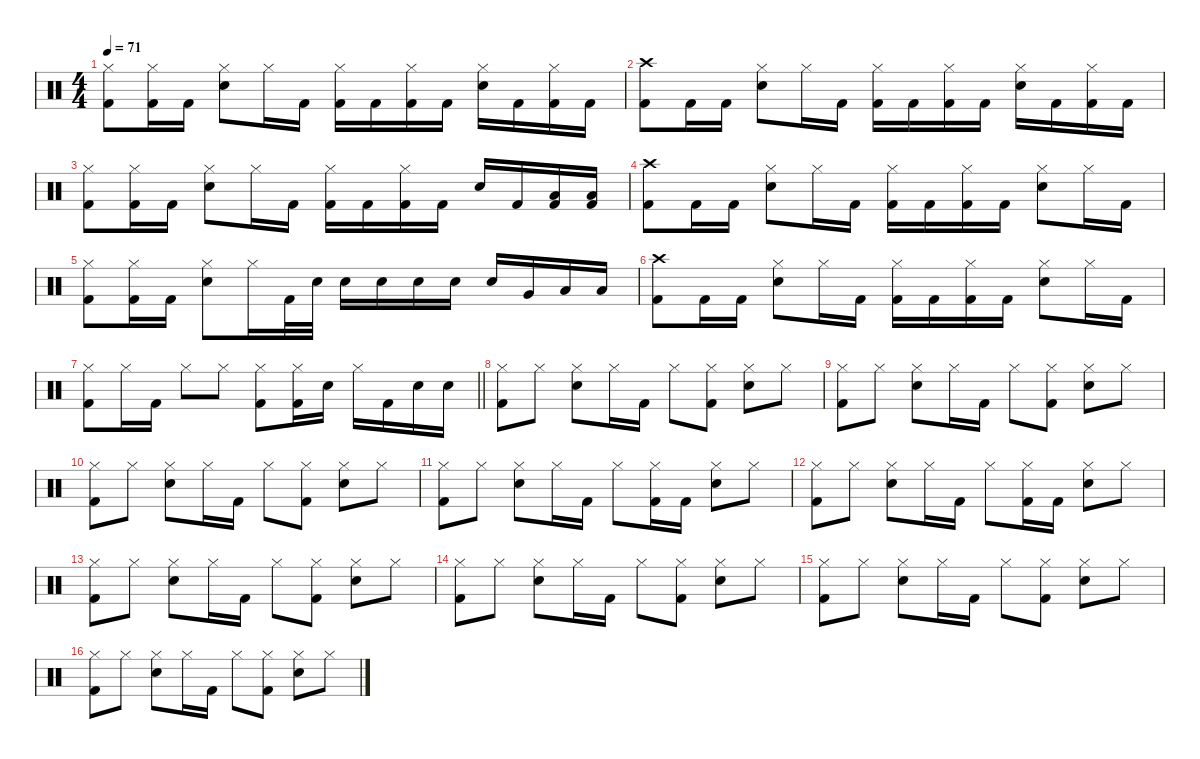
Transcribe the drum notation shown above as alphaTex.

\defaultSystemsLayout 4
\hideDynamics
\bracketExtendMode nobrackets
\singleTrackTrackNamePolicy hidden
\multiTrackTrackNamePolicy hidden
\firstSystemTrackNameMode fullname
\firstSystemTrackNameOrientation horizontal
\otherSystemsTrackNameOrientation horizontal
\track ("Drums" "drm.") {instrument percussion}
\staff {score}
\articulation defaults
\ts (4 4)
\tempo 71
\clef neutral
\ks c
("Hi-Hat (closed)" "Kick (hit) 2").8{dy f beam Down} ("Hi-Hat (closed)" "Kick (hit) 2").16{beam Down} "Kick (hit) 2".16{beam Down} ("Hi-Hat (closed)" "Snare (hit) 2").8{beam Down} "Hi-Hat (closed)".16{beam Down} "Kick (hit) 2".16{beam Down} ("Hi-Hat (closed)" "Kick (hit) 2").16{beam Down} "Kick (hit) 2".16{beam Down} ("Hi-Hat (closed)" "Kick (hit) 2").16{beam Down} "Kick (hit) 2".16{beam Down} ("Hi-Hat (closed)" "Snare (hit) 2").16{beam Down} "Kick (hit) 2".16{beam Down} ("Hi-Hat (closed)" "Kick (hit) 2").16{beam Down} "Kick (hit) 2".16{beam Down} |
("Crash high (hit)" "Kick (hit) 2").8{beam Down} "Kick (hit) 2".16{beam Down} "Kick (hit) 2".16{beam Down} ("Hi-Hat (closed)" "Snare (hit) 2").8{beam Down} "Hi-Hat (closed)".16{beam Down} "Kick (hit) 2".16{beam Down} ("Hi-Hat (closed)" "Kick (hit) 2").16{beam Down} "Kick (hit) 2".16{beam Down} ("Hi-Hat (closed)" "Kick (hit) 2").16{beam Down} "Kick (hit) 2".16{beam Down} ("Hi-Hat (closed)" "Snare (hit) 2").16{beam Down} "Kick (hit) 2".16{beam Down} ("Hi-Hat (closed)" "Kick (hit) 2").16{beam Down} "Kick (hit) 2".16{beam Down} |
("Kick (hit) 2" "Hi-Hat (closed)").8{beam Down} ("Hi-Hat (closed)" "Kick (hit) 2").16{beam Down} "Kick (hit) 2".16{beam Down} ("Hi-Hat (closed)" "Snare (hit) 2").8{beam Down} "Hi-Hat (closed)".16{beam Down} "Kick (hit) 2".16{beam Down} ("Hi-Hat (closed)" "Kick (hit) 2").16{beam Down} "Kick (hit) 2".16{beam Down} ("Hi-Hat (closed)" "Kick (hit) 2").16{beam Down} "Kick (hit) 2".16{beam Down} "Snare (hit) 2".16{beam Up} "Kick (hit) 2".16{beam Up} ("Low Tom (hit)" "Kick (hit) 2").16{beam Up} ("Low Tom (hit)" "Kick (hit) 2").16{beam Up} |
("Crash high (hit)" "Kick (hit) 2").8{beam Down} "Kick (hit) 2".16{beam Down} "Kick (hit) 2".16{beam Down} ("Snare (hit) 2" "Hi-Hat (closed)").8{beam Down} "Hi-Hat (closed)".16{beam Down} "Kick (hit) 2".16{beam Down} ("Hi-Hat (closed)" "Kick (hit) 2").16{beam Down} "Kick (hit) 2".16{beam Down} ("Hi-Hat (closed)" "Kick (hit) 2").16{beam Down} "Kick (hit) 2".16{beam Down} ("Snare (hit) 2" "Hi-Hat (closed)").8{beam Down} "Hi-Hat (closed)".16{beam Down} "Kick (hit) 2".16{beam Down} |
("Hi-Hat (closed)" "Kick (hit) 2").8{beam Down} ("Hi-Hat (closed)" "Kick (hit) 2").16{beam Down} "Kick (hit) 2".16{beam Down} ("Hi-Hat (closed)" "Snare (hit) 2").8{beam Down} "Hi-Hat (closed)".16{beam Down} "Kick (hit) 2".32{beam Down} "Snare (hit) 2".32{beam Down} "Snare (hit) 2".16{beam Down} "Snare (hit) 2".16{beam Down} "Snare (hit) 2".16{beam Down} "Snare (hit) 2".16{beam Down} "Snare (hit) 2".16{beam Up} "Very Low Tom (hit)".16{beam Up} "Low Floor Tom (hit)".16{beam Up} "Low Floor Tom (hit)".16{beam Up} |
("Crash high (hit)" "Kick (hit) 2").8{beam Down} "Kick (hit) 2".16{beam Down} "Kick (hit) 2".16{beam Down} ("Snare (hit) 2" "Hi-Hat (closed)").8{beam Down} "Hi-Hat (closed)".16{beam Down} "Kick (hit) 2".16{beam Down} ("Hi-Hat (closed)" "Kick (hit) 2").16{beam Down} "Kick (hit) 2".16{beam Down} ("Hi-Hat (closed)" "Kick (hit) 2").16{beam Down} "Kick (hit) 2".16{beam Down} ("Snare (hit) 2" "Hi-Hat (closed)").8{beam Down} "Hi-Hat (closed)".16{beam Down} "Kick (hit) 2".16{beam Down} |
\barLineRight lightlight
("Hi-Hat (closed)" "Kick (hit) 2").8{beam Down} "Hi-Hat (closed)".16{beam Down} "Kick (hit) 2".16{beam Down} "Hi-Hat (closed)".8{beam Down} "Hi-Hat (closed)".8{beam Down} ("Hi-Hat (closed)" "Kick (hit) 2").8{beam Down} ("Hi-Hat (closed)" "Kick (hit) 2").16{beam Down} "Snare (hit) 2".16{beam Down} "Hi-Hat (closed)".16{beam Down} "Kick (hit) 2".16{beam Down} "Snare (hit) 2".16{beam Down} "Snare (hit) 2".16{beam Down} |
("Hi-Hat (closed)" "Kick (hit) 2").8{beam Down} "Hi-Hat (closed)".8{beam Down} ("Hi-Hat (closed)" "Snare (hit) 2").8{beam Down} "Hi-Hat (closed)".16{beam Down} "Kick (hit) 2".16{beam Down} "Hi-Hat (closed)".8{beam Down} ("Kick (hit) 2" "Hi-Hat (closed)").8{beam Down} ("Hi-Hat (closed)" "Snare (hit) 2").8{beam Down} "Hi-Hat (closed)".8{beam Down} |
("Hi-Hat (closed)" "Kick (hit) 2").8{beam Down} "Hi-Hat (closed)".8{beam Down} ("Hi-Hat (closed)" "Snare (hit) 2").8{beam Down} "Hi-Hat (closed)".16{beam Down} "Kick (hit) 2".16{beam Down} "Hi-Hat (closed)".8{beam Down} ("Kick (hit) 2" "Hi-Hat (closed)").8{beam Down} ("Hi-Hat (closed)" "Snare (hit) 2").8{beam Down} "Hi-Hat (closed)".8{beam Down} |
("Hi-Hat (closed)" "Kick (hit) 2").8{beam Down} "Hi-Hat (closed)".8{beam Down} ("Hi-Hat (closed)" "Snare (hit) 2").8{beam Down} "Hi-Hat (closed)".16{beam Down} "Kick (hit) 2".16{beam Down} "Hi-Hat (closed)".8{beam Down} ("Kick (hit) 2" "Hi-Hat (closed)").8{beam Down} ("Hi-Hat (closed)" "Snare (hit) 2").8{beam Down} "Hi-Hat (closed)".8{beam Down} |
("Hi-Hat (closed)" "Kick (hit) 2").8{beam Down} "Hi-Hat (closed)".8{beam Down} ("Hi-Hat (closed)" "Snare (hit) 2").8{beam Down} "Hi-Hat (closed)".16{beam Down} "Kick (hit) 2".16{beam Down} "Hi-Hat (closed)".8{beam Down} ("Kick (hit) 2" "Hi-Hat (closed)").16{beam Down} "Kick (hit) 2".16{beam Down} ("Hi-Hat (closed)" "Snare (hit) 2").8{beam Down} "Hi-Hat (closed)".8{beam Down} |
("Hi-Hat (closed)" "Kick (hit) 2").8{beam Down} "Hi-Hat (closed)".8{beam Down} ("Hi-Hat (closed)" "Snare (hit) 2").8{beam Down} "Hi-Hat (closed)".16{beam Down} "Kick (hit) 2".16{beam Down} "Hi-Hat (closed)".8{beam Down} ("Kick (hit) 2" "Hi-Hat (closed)").16{beam Down} "Kick (hit) 2".16{beam Down} ("Hi-Hat (closed)" "Snare (hit) 2").8{beam Down} "Hi-Hat (closed)".8{beam Down} |
("Hi-Hat (closed)" "Kick (hit) 2").8{beam Down} "Hi-Hat (closed)".8{beam Down} ("Hi-Hat (closed)" "Snare (hit) 2").8{beam Down} "Hi-Hat (closed)".16{beam Down} "Kick (hit) 2".16{beam Down} "Hi-Hat (closed)".8{beam Down} ("Kick (hit) 2" "Hi-Hat (closed)").8{beam Down} ("Hi-Hat (closed)" "Snare (hit) 2").8{beam Down} "Hi-Hat (closed)".8{beam Down} |
("Hi-Hat (closed)" "Kick (hit) 2").8{beam Down} "Hi-Hat (closed)".8{beam Down} ("Hi-Hat (closed)" "Snare (hit) 2").8{beam Down} "Hi-Hat (closed)".16{beam Down} "Kick (hit) 2".16{beam Down} "Hi-Hat (closed)".8{beam Down} ("Kick (hit) 2" "Hi-Hat (closed)").8{beam Down} ("Hi-Hat (closed)" "Snare (hit) 2").8{beam Down} "Hi-Hat (closed)".8{beam Down} |
("Hi-Hat (closed)" "Kick (hit) 2").8{beam Down} "Hi-Hat (closed)".8{beam Down} ("Hi-Hat (closed)" "Snare (hit) 2").8{beam Down} "Hi-Hat (closed)".16{beam Down} "Kick (hit) 2".16{beam Down} "Hi-Hat (closed)".8{beam Down} ("Kick (hit) 2" "Hi-Hat (closed)").8{beam Down} ("Hi-Hat (closed)" "Snare (hit) 2").8{beam Down} "Hi-Hat (closed)".8{beam Down} |
("Hi-Hat (closed)" "Kick (hit) 2").8{beam Down} "Hi-Hat (closed)".8{beam Down} ("Hi-Hat (closed)" "Snare (hit) 2").8{beam Down} "Hi-Hat (closed)".16{beam Down} "Kick (hit) 2".16{beam Down} "Hi-Hat (closed)".8{beam Down} ("Kick (hit) 2" "Hi-Hat (closed)").8{beam Down} ("Hi-Hat (closed)" "Snare (hit) 2").8{beam Down} "Hi-Hat (closed)".8{beam Down}
